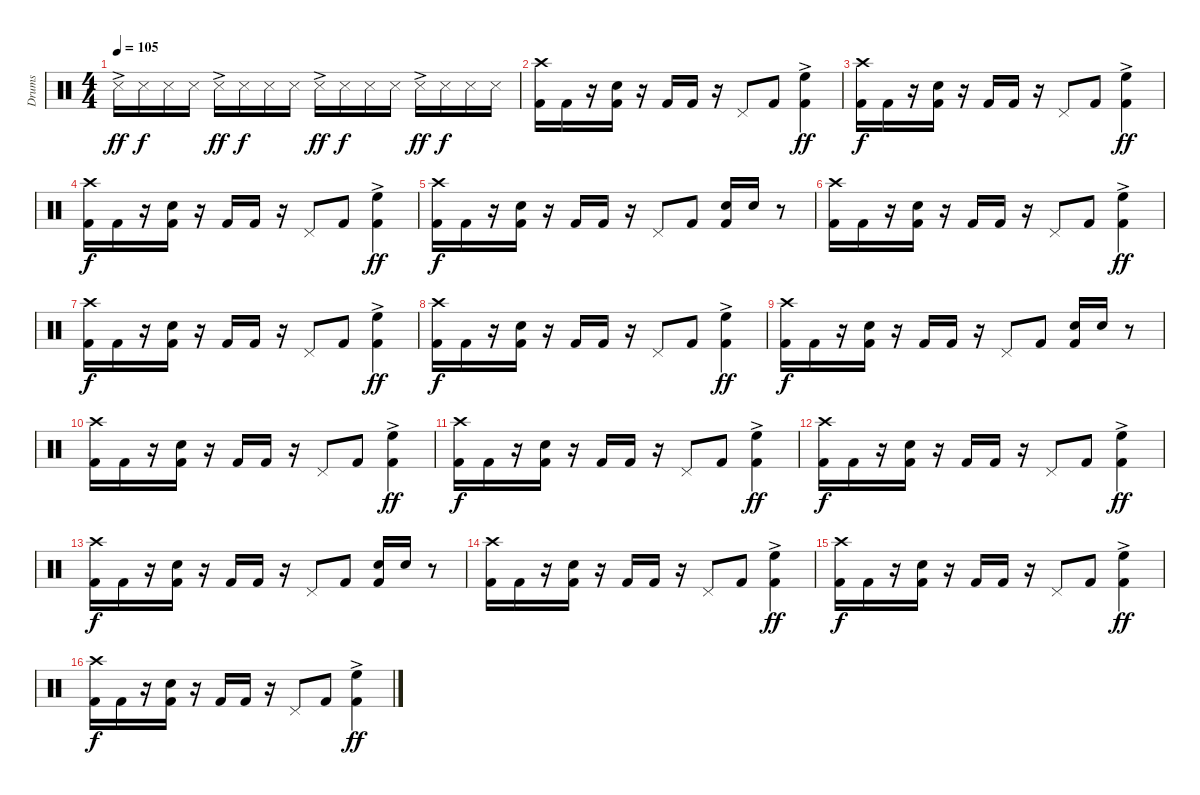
\track ("Drums" "Drums") {instrument percussion}
\staff {score}
\articulation defaults
\ts (4 4)
\tempo 105
\clef neutral
\ks aminor "Snare (side stick) 3"{ac}.16{dy ff} "Snare (side stick) 3".16{dy f} "Snare (side stick) 3".16 "Snare (side stick) 3".16 "Snare (side stick) 3"{ac}.16{dy ff} "Snare (side stick) 3".16{dy f} "Snare (side stick) 3".16 "Snare (side stick) 3".16 "Snare (side stick) 3"{ac}.16{dy ff} "Snare (side stick) 3".16{dy f} "Snare (side stick) 3".16 "Snare (side stick) 3".16 "Snare (side stick) 3"{ac}.16{dy ff} "Snare (side stick) 3".16{dy f} "Snare (side stick) 3".16 "Snare (side stick) 3".16
|
("Crash high (hit)" "Kick (hit) 2").16{volume 13} "Kick (hit) 2".16 r.16 ("Snare (hit) 2" "Kick (hit) 2").16 r.16 "Kick (hit) 2".16 "Kick (hit) 2".16 r.16 "Pedal Hi-Hat (hit)".8 "Kick (hit) 2".8 ("High Floor Tom (hit)"{ac} "Kick (hit) 2").4{dy ff} |
("Crash high (hit)" "Kick (hit) 2").16{dy f} "Kick (hit) 2".16 r.16 ("Snare (hit) 2" "Kick (hit) 2").16 r.16 "Kick (hit) 2".16 "Kick (hit) 2".16 r.16 "Pedal Hi-Hat (hit)".8 "Kick (hit) 2".8 ("High Floor Tom (hit)"{ac} "Kick (hit) 2").4{dy ff} |
("Crash high (hit)" "Kick (hit) 2").16{dy f} "Kick (hit) 2".16 r.16 ("Snare (hit) 2" "Kick (hit) 2").16 r.16 "Kick (hit) 2".16 "Kick (hit) 2".16 r.16 "Pedal Hi-Hat (hit)".8 "Kick (hit) 2".8 ("High Floor Tom (hit)"{ac} "Kick (hit) 2").4{dy ff} |
("Crash high (hit)" "Kick (hit) 2").16{dy f} "Kick (hit) 2".16 r.16 ("Snare (hit) 2" "Kick (hit) 2").16 r.16 "Kick (hit) 2".16 "Kick (hit) 2".16 r.16 "Pedal Hi-Hat (hit)".8 "Kick (hit) 2".8 ("Snare (hit) 2" "Kick (hit) 2").16 "Snare (hit) 2".16 r.8 |
("Crash high (hit)" "Kick (hit) 2").16{volume 13} "Kick (hit) 2".16 r.16 ("Snare (hit) 2" "Kick (hit) 2").16 r.16 "Kick (hit) 2".16 "Kick (hit) 2".16 r.16 "Pedal Hi-Hat (hit)".8 "Kick (hit) 2".8 ("High Floor Tom (hit)"{ac} "Kick (hit) 2").4{dy ff} |
("Crash high (hit)" "Kick (hit) 2").16{dy f} "Kick (hit) 2".16 r.16 ("Snare (hit) 2" "Kick (hit) 2").16 r.16 "Kick (hit) 2".16 "Kick (hit) 2".16 r.16 "Pedal Hi-Hat (hit)".8 "Kick (hit) 2".8 ("High Floor Tom (hit)"{ac} "Kick (hit) 2").4{dy ff} |
("Crash high (hit)" "Kick (hit) 2").16{dy f} "Kick (hit) 2".16 r.16 ("Snare (hit) 2" "Kick (hit) 2").16 r.16 "Kick (hit) 2".16 "Kick (hit) 2".16 r.16 "Pedal Hi-Hat (hit)".8 "Kick (hit) 2".8 ("High Floor Tom (hit)"{ac} "Kick (hit) 2").4{dy ff} |
("Crash high (hit)" "Kick (hit) 2").16{dy f} "Kick (hit) 2".16 r.16 ("Snare (hit) 2" "Kick (hit) 2").16 r.16 "Kick (hit) 2".16 "Kick (hit) 2".16 r.16 "Pedal Hi-Hat (hit)".8 "Kick (hit) 2".8 ("Snare (hit) 2" "Kick (hit) 2").16 "Snare (hit) 2".16 r.8 |
("Crash high (hit)" "Kick (hit) 2").16{volume 13} "Kick (hit) 2".16 r.16 ("Snare (hit) 2" "Kick (hit) 2").16 r.16 "Kick (hit) 2".16 "Kick (hit) 2".16 r.16 "Pedal Hi-Hat (hit)".8 "Kick (hit) 2".8 ("High Floor Tom (hit)"{ac} "Kick (hit) 2").4{dy ff} |
("Crash high (hit)" "Kick (hit) 2").16{dy f} "Kick (hit) 2".16 r.16 ("Snare (hit) 2" "Kick (hit) 2").16 r.16 "Kick (hit) 2".16 "Kick (hit) 2".16 r.16 "Pedal Hi-Hat (hit)".8 "Kick (hit) 2".8 ("High Floor Tom (hit)"{ac} "Kick (hit) 2").4{dy ff} |
("Crash high (hit)" "Kick (hit) 2").16{dy f} "Kick (hit) 2".16 r.16 ("Snare (hit) 2" "Kick (hit) 2").16 r.16 "Kick (hit) 2".16 "Kick (hit) 2".16 r.16 "Pedal Hi-Hat (hit)".8 "Kick (hit) 2".8 ("High Floor Tom (hit)"{ac} "Kick (hit) 2").4{dy ff} |
("Crash high (hit)" "Kick (hit) 2").16{dy f} "Kick (hit) 2".16 r.16 ("Snare (hit) 2" "Kick (hit) 2").16 r.16 "Kick (hit) 2".16 "Kick (hit) 2".16 r.16 "Pedal Hi-Hat (hit)".8 "Kick (hit) 2".8 ("Snare (hit) 2" "Kick (hit) 2").16 "Snare (hit) 2".16 r.8 |
("Crash high (hit)" "Kick (hit) 2").16 "Kick (hit) 2".16 r.16 ("Snare (hit) 2" "Kick (hit) 2").16 r.16 "Kick (hit) 2".16 "Kick (hit) 2".16 r.16 "Pedal Hi-Hat (hit)".8 "Kick (hit) 2".8 ("High Floor Tom (hit)"{ac} "Kick (hit) 2").4{dy ff} |
("Crash high (hit)" "Kick (hit) 2").16{dy f} "Kick (hit) 2".16 r.16 ("Snare (hit) 2" "Kick (hit) 2").16 r.16 "Kick (hit) 2".16 "Kick (hit) 2".16 r.16 "Pedal Hi-Hat (hit)".8 "Kick (hit) 2".8 ("High Floor Tom (hit)"{ac} "Kick (hit) 2").4{dy ff} |
("Crash high (hit)" "Kick (hit) 2").16{dy f} "Kick (hit) 2".16 r.16 ("Snare (hit) 2" "Kick (hit) 2").16 r.16 "Kick (hit) 2".16 "Kick (hit) 2".16 r.16 "Pedal Hi-Hat (hit)".8 "Kick (hit) 2".8 ("High Floor Tom (hit)"{ac} "Kick (hit) 2").4{dy ff}
